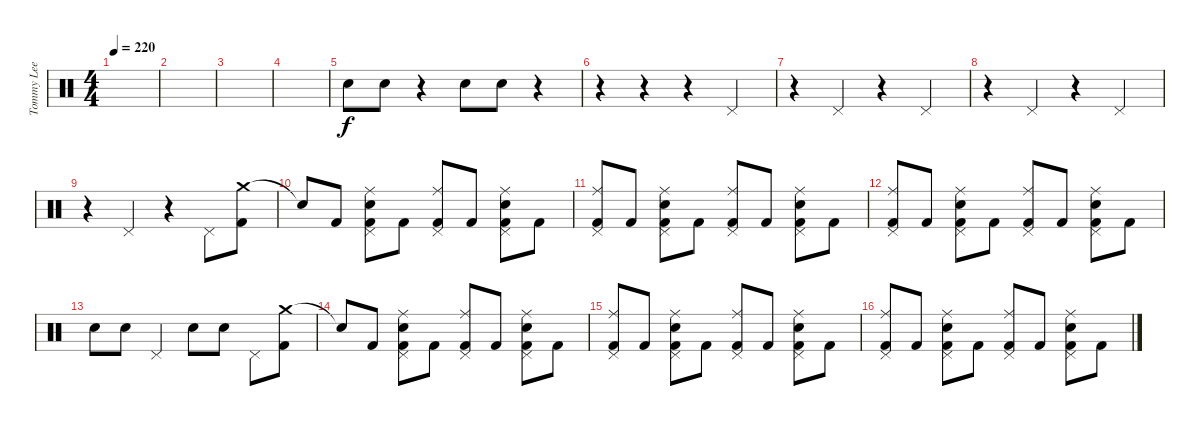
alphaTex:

\track ("Tommy Lee - Drums" "Tommy Lee ") {instrument percussion}
\staff {score}
\articulation defaults
\ts (4 4)
\tempo 220
\clef neutral
\ks c
|
|
|
|
"Electric Snare (hit)".8 "Electric Snare (hit)".8 r.4 "Electric Snare (hit)".8 "Electric Snare (hit)".8 r.4 |
r.4 r.4 r.4 "Pedal Hi-Hat (hit)".4 |
r.4 "Pedal Hi-Hat (hit)".4 r.4 "Pedal Hi-Hat (hit)".4 |
r.4 "Pedal Hi-Hat (hit)".4 r.4 "Pedal Hi-Hat (hit)".4 |
r.4 "Pedal Hi-Hat (hit)".4 r.4 "Pedal Hi-Hat (hit)".8 ("Crash medium (hit)" "Kick (hit) 2").8 |
"Snare (hit)"{t}.8 "Kick (hit) 2".8 ("Ride (middle)" "Pedal Hi-Hat (hit)" "Electric Snare (hit)" "Kick (hit) 2").8 "Kick (hit) 2".8 ("Ride (middle)" "Pedal Hi-Hat (hit)" "Kick (hit) 2").8 "Kick (hit) 2".8 ("Ride (middle)" "Pedal Hi-Hat (hit)" "Electric Snare (hit)" "Kick (hit) 2").8 "Kick (hit) 2".8 |
("Ride (middle)" "Pedal Hi-Hat (hit)" "Kick (hit) 2").8 "Kick (hit) 2".8 ("Ride (middle)" "Pedal Hi-Hat (hit)" "Electric Snare (hit)" "Kick (hit) 2").8 "Kick (hit) 2".8 ("Ride (middle)" "Pedal Hi-Hat (hit)" "Kick (hit) 2").8 "Kick (hit) 2".8 ("Ride (middle)" "Pedal Hi-Hat (hit)" "Electric Snare (hit)" "Kick (hit) 2").8 "Kick (hit) 2".8 |
("Ride (middle)" "Pedal Hi-Hat (hit)" "Kick (hit) 2").8 "Kick (hit) 2".8 ("Ride (middle)" "Pedal Hi-Hat (hit)" "Electric Snare (hit)" "Kick (hit) 2").8 "Kick (hit) 2".8 ("Ride (middle)" "Pedal Hi-Hat (hit)" "Kick (hit) 2").8 "Kick (hit) 2".8 ("Ride (middle)" "Pedal Hi-Hat (hit)" "Electric Snare (hit)" "Kick (hit) 2").8 "Kick (hit) 2".8 |
"Electric Snare (hit)".8 "Electric Snare (hit)".8 "Pedal Hi-Hat (hit)".4 "Electric Snare (hit)".8 "Electric Snare (hit)".8 "Pedal Hi-Hat (hit)".8 ("Crash medium (hit)" "Kick (hit) 2").8 |
"Snare (hit)"{t}.8 "Kick (hit) 2".8 ("Ride (middle)" "Pedal Hi-Hat (hit)" "Electric Snare (hit)" "Kick (hit) 2").8 "Kick (hit) 2".8 ("Ride (middle)" "Pedal Hi-Hat (hit)" "Kick (hit) 2").8 "Kick (hit) 2".8 ("Ride (middle)" "Pedal Hi-Hat (hit)" "Electric Snare (hit)" "Kick (hit) 2").8 "Kick (hit) 2".8 |
("Ride (middle)" "Pedal Hi-Hat (hit)" "Kick (hit) 2").8 "Kick (hit) 2".8 ("Ride (middle)" "Pedal Hi-Hat (hit)" "Electric Snare (hit)" "Kick (hit) 2").8 "Kick (hit) 2".8 ("Ride (middle)" "Pedal Hi-Hat (hit)" "Kick (hit) 2").8 "Kick (hit) 2".8 ("Ride (middle)" "Pedal Hi-Hat (hit)" "Electric Snare (hit)" "Kick (hit) 2").8 "Kick (hit) 2".8 |
("Ride (middle)" "Pedal Hi-Hat (hit)" "Kick (hit) 2").8 "Kick (hit) 2".8 ("Ride (middle)" "Pedal Hi-Hat (hit)" "Electric Snare (hit)" "Kick (hit) 2").8 "Kick (hit) 2".8 ("Ride (middle)" "Pedal Hi-Hat (hit)" "Kick (hit) 2").8 "Kick (hit) 2".8 ("Ride (middle)" "Pedal Hi-Hat (hit)" "Electric Snare (hit)" "Kick (hit) 2").8 "Kick (hit) 2".8
